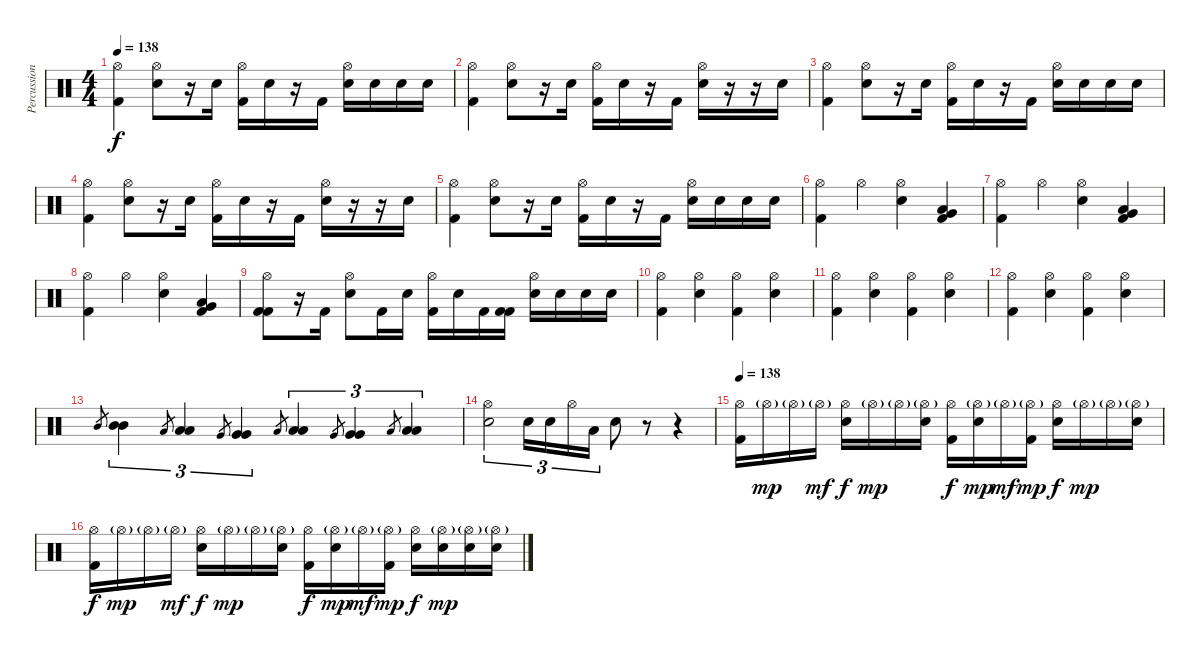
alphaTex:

\track ("Percussion" "Percussion") {instrument percussion}
\staff {score}
\articulation defaults
\ts (4 4)
\tempo 138
\clef neutral
\ks c
("Hi-Hat (open)" "Kick (hit) 2").4{dy f} ("Hi-Hat (open)" "Snare (hit) 2").8 r.16 "Snare (hit) 2".16 ("Hi-Hat (open)" "Kick (hit) 2").16 "Snare (hit) 2".16 r.16 "Kick (hit) 2".16 ("Hi-Hat (open)" "Snare (hit) 2").16 "Snare (hit) 2".16 "Snare (hit) 2".16 "Snare (hit) 2".16 |
("Hi-Hat (open)" "Kick (hit) 2").4 ("Hi-Hat (open)" "Snare (hit) 2").8 r.16 "Snare (hit) 2".16 ("Hi-Hat (open)" "Kick (hit) 2").16 "Snare (hit) 2".16 r.16 "Kick (hit) 2".16 ("Hi-Hat (open)" "Snare (hit) 2").16 r.16 r.16 "Snare (hit) 2".16 |
("Hi-Hat (open)" "Kick (hit) 2").4 ("Hi-Hat (open)" "Snare (hit) 2").8 r.16 "Snare (hit) 2".16 ("Hi-Hat (open)" "Kick (hit) 2").16 "Snare (hit) 2".16 r.16 "Kick (hit) 2".16 ("Hi-Hat (open)" "Snare (hit) 2").16 "Snare (hit) 2".16 "Snare (hit) 2".16 "Snare (hit) 2".16 |
("Hi-Hat (open)" "Kick (hit) 2").4 ("Hi-Hat (open)" "Snare (hit) 2").8 r.16 "Snare (hit) 2".16 ("Hi-Hat (open)" "Kick (hit) 2").16 "Snare (hit) 2".16 r.16 "Kick (hit) 2".16 ("Hi-Hat (open)" "Snare (hit) 2").16 r.16 r.16 "Snare (hit) 2".16 |
("Hi-Hat (open)" "Kick (hit) 2").4 ("Hi-Hat (open)" "Snare (hit) 2").8 r.16 "Snare (hit) 2".16 ("Hi-Hat (open)" "Kick (hit) 2").16 "Snare (hit) 2".16 r.16 "Kick (hit) 2".16 ("Hi-Hat (open)" "Snare (hit) 2").16 "Snare (hit) 2".16 "Snare (hit) 2".16 "Snare (hit) 2".16 |
("Hi-Hat (open)" "Kick (hit) 2").4 "Hi-Hat (open)".4 ("Hi-Hat (open)" "Snare (hit) 2").4 ("Very Low Tom (hit)" "Low Floor Tom (hit)" "Kick (hit) 2").4 |
("Hi-Hat (open)" "Kick (hit) 2").4 "Hi-Hat (open)".4 ("Hi-Hat (open)" "Snare (hit) 2").4 ("Very Low Tom (hit)" "Low Floor Tom (hit)" "Kick (hit) 2").4 |
("Hi-Hat (open)" "Kick (hit) 2").4 "Hi-Hat (open)".4 ("Hi-Hat (open)" "Snare (hit) 2").4 ("Very Low Tom (hit)" "Low Floor Tom (hit)" "Kick (hit) 2").4 |
("Hi-Hat (open)" "Kick (hit) 2" "Kick (hit) 2").8 r.16 "Kick (hit) 2".16 ("Hi-Hat (open)" "Snare (hit) 2").8 "Kick (hit) 2".16 "Snare (hit) 2".16 ("Hi-Hat (open)" "Kick (hit) 2").16 "Snare (hit) 2".16 "Kick (hit) 2".16 ("Kick (hit) 2" "Kick (hit) 2").16 ("Hi-Hat (open)" "Snare (hit) 2").16 "Snare (hit) 2".16 "Snare (hit) 2".16 "Snare (hit) 2".16 |
("Hi-Hat (open)" "Kick (hit) 2").4 ("Hi-Hat (open)" "Snare (hit) 2").4 ("Hi-Hat (open)" "Kick (hit) 2").4 ("Hi-Hat (open)" "Snare (hit) 2").4 |
("Hi-Hat (open)" "Kick (hit) 2").4 ("Hi-Hat (open)" "Snare (hit) 2").4 ("Hi-Hat (open)" "Kick (hit) 2").4 ("Hi-Hat (open)" "Snare (hit) 2").4 |
("Hi-Hat (open)" "Kick (hit) 2").4 ("Hi-Hat (open)" "Snare (hit) 2").4 ("Hi-Hat (open)" "Kick (hit) 2").4 ("Hi-Hat (open)" "Snare (hit) 2").4 |
"Mid Tom (hit)".8{gr} ("Mid Tom (hit)" "Mid Tom (hit)").4{tu (3 2)} "Low Tom (hit)".8{gr} ("Low Tom (hit)" "Low Tom (hit)").4{tu (3 2)} "Very Low Tom (hit)".8{gr} ("Very Low Tom (hit)" "Very Low Tom (hit)").4{tu (3 2)} "Low Tom (hit)".8{gr} ("Low Tom (hit)" "Low Tom (hit)").4{tu (3 2)} "Very Low Tom (hit)".8{gr} ("Very Low Tom (hit)" "Very Low Tom (hit)").4{tu (3 2)} "Low Floor Tom (hit)".8{gr} ("Low Floor Tom (hit)" "Low Floor Tom (hit)").4{tu (3 2)} |
("Hi-Hat (open)" "Snare (hit) 2").2{tu (3 2)} "Electric Snare (hit)".16{tu (3 2)} "Electric Snare (hit)".16{tu (3 2)} "Hi-Hat (open)".16{tu (3 2)} "Low Tom (hit)".16{tu (3 2)} "Electric Snare (hit)".8 r.8 r.4 |
\tempo 138
("Hi-Hat (open)" "Kick (hit) 2").16 "Hi-Hat (open)"{g}.16{dy mp} "Hi-Hat (open)"{g}.16 "Hi-Hat (open)"{g}.16{dy mf} ("Hi-Hat (open)" "Snare (hit) 2").16{dy f} "Hi-Hat (open)"{g}.16{dy mp} "Hi-Hat (open)"{g}.16 ("Hi-Hat (open)"{g} "Snare (hit) 2").16 ("Hi-Hat (open)" "Kick (hit) 2").16{dy f} ("Hi-Hat (open)"{g} "Snare (hit) 2").16{dy mp} "Hi-Hat (open)"{g}.16{dy mf} ("Hi-Hat (open)"{g} "Kick (hit) 2").16{dy mp} ("Hi-Hat (open)" "Snare (hit) 2").16{dy f} "Hi-Hat (open)"{g}.16{dy mp} "Hi-Hat (open)"{g}.16 ("Hi-Hat (open)"{g} "Snare (hit) 2").16 |
("Hi-Hat (open)" "Kick (hit) 2").16{dy f} "Hi-Hat (open)"{g}.16{dy mp} "Hi-Hat (open)"{g}.16 "Hi-Hat (open)"{g}.16{dy mf} ("Hi-Hat (open)" "Snare (hit) 2").16{dy f} "Hi-Hat (open)"{g}.16{dy mp} "Hi-Hat (open)"{g}.16 ("Hi-Hat (open)"{g} "Snare (hit) 2").16 ("Hi-Hat (open)" "Kick (hit) 2").16{dy f} ("Hi-Hat (open)"{g} "Snare (hit) 2").16{dy mp} "Hi-Hat (open)"{g}.16{dy mf} ("Hi-Hat (open)"{g} "Kick (hit) 2").16{dy mp} ("Hi-Hat (open)" "Snare (hit) 2").16{dy f} ("Hi-Hat (open)"{g} "Snare (hit) 2").16{dy mp} ("Hi-Hat (open)"{g} "Snare (hit) 2").16 ("Hi-Hat (open)"{g} "Snare (hit) 2").16
